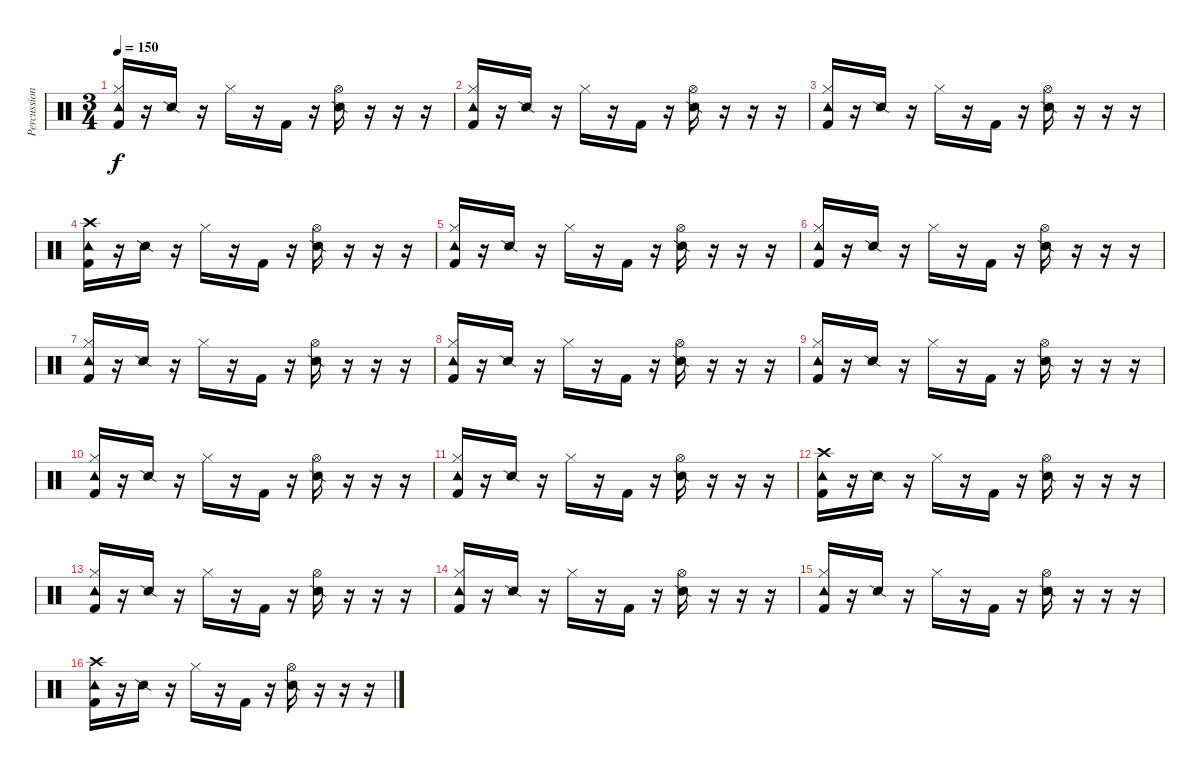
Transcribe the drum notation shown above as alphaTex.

\track ("Percussion" "Percussion") {instrument percussion}
\staff {score}
\articulation defaults
\ts (3 4)
\tempo 150
\clef neutral
\ks c
("Tambourine (hit)" "Hi-Hat (closed)" "Kick (hit) 2").16{dy f} r.16 "Snare (side stick) 2".16 r.16 "Hi-Hat (closed)".16 r.16 "Kick (hit) 2".16 r.16 ("Hi-Hat (open)" "Snare (side stick) 2").16 r.16 r.16 r.16 |
("Tambourine (hit)" "Hi-Hat (closed)" "Kick (hit) 2").16 r.16 "Snare (side stick) 2".16 r.16 "Hi-Hat (closed)".16 r.16 "Kick (hit) 2".16 r.16 ("Hi-Hat (open)" "Snare (side stick) 2").16 r.16 r.16 r.16 |
("Tambourine (hit)" "Hi-Hat (closed)" "Kick (hit) 2").16 r.16 "Snare (side stick) 2".16 r.16 "Hi-Hat (closed)".16 r.16 "Kick (hit) 2".16 r.16 ("Hi-Hat (open)" "Snare (side stick) 2").16 r.16 r.16 r.16 |
("Tambourine (hit)" "Crash high (hit)" "Kick (hit) 2").16 r.16 "Snare (side stick) 2".16 r.16 "Hi-Hat (closed)".16 r.16 "Kick (hit) 2".16 r.16 ("Hi-Hat (open)" "Snare (side stick) 2").16 r.16 r.16 r.16 |
("Tambourine (hit)" "Hi-Hat (closed)" "Kick (hit) 2").16 r.16 "Snare (side stick) 2".16 r.16 "Hi-Hat (closed)".16 r.16 "Kick (hit) 2".16 r.16 ("Hi-Hat (open)" "Snare (side stick) 2").16 r.16 r.16 r.16 |
("Tambourine (hit)" "Hi-Hat (closed)" "Kick (hit) 2").16 r.16 "Snare (side stick) 2".16 r.16 "Hi-Hat (closed)".16 r.16 "Kick (hit) 2".16 r.16 ("Hi-Hat (open)" "Snare (side stick) 2").16 r.16 r.16 r.16 |
("Tambourine (hit)" "Hi-Hat (closed)" "Kick (hit) 2").16 r.16 "Snare (side stick) 2".16 r.16 "Hi-Hat (closed)".16 r.16 "Kick (hit) 2".16 r.16 ("Hi-Hat (open)" "Snare (side stick) 2").16 r.16 r.16 r.16 |
("Tambourine (hit)" "Hi-Hat (closed)" "Kick (hit) 2").16 r.16 "Snare (side stick) 2".16 r.16 "Hi-Hat (closed)".16 r.16 "Kick (hit) 2".16 r.16 ("Hi-Hat (open)" "Snare (side stick) 2").16 r.16 r.16 r.16 |
("Tambourine (hit)" "Hi-Hat (closed)" "Kick (hit) 2").16 r.16 "Snare (side stick) 2".16 r.16 "Hi-Hat (closed)".16 r.16 "Kick (hit) 2".16 r.16 ("Hi-Hat (open)" "Snare (side stick) 2").16 r.16 r.16 r.16 |
("Tambourine (hit)" "Hi-Hat (closed)" "Kick (hit) 2").16 r.16 "Snare (side stick) 2".16 r.16 "Hi-Hat (closed)".16 r.16 "Kick (hit) 2".16 r.16 ("Hi-Hat (open)" "Snare (side stick) 2").16 r.16 r.16 r.16 |
("Tambourine (hit)" "Hi-Hat (closed)" "Kick (hit) 2").16 r.16 "Snare (side stick) 2".16 r.16 "Hi-Hat (closed)".16 r.16 "Kick (hit) 2".16 r.16 ("Hi-Hat (open)" "Snare (side stick) 2").16 r.16 r.16 r.16 |
("Tambourine (hit)" "Crash high (hit)" "Kick (hit) 2").16 r.16 "Snare (side stick) 2".16 r.16 "Hi-Hat (closed)".16 r.16 "Kick (hit) 2".16 r.16 ("Hi-Hat (open)" "Snare (side stick) 2").16 r.16 r.16 r.16 |
("Tambourine (hit)" "Hi-Hat (closed)" "Kick (hit) 2").16 r.16 "Snare (side stick) 2".16 r.16 "Hi-Hat (closed)".16 r.16 "Kick (hit) 2".16 r.16 ("Hi-Hat (open)" "Snare (side stick) 2").16 r.16 r.16 r.16 |
("Tambourine (hit)" "Hi-Hat (closed)" "Kick (hit) 2").16 r.16 "Snare (side stick) 2".16 r.16 "Hi-Hat (closed)".16 r.16 "Kick (hit) 2".16 r.16 ("Hi-Hat (open)" "Snare (side stick) 2").16 r.16 r.16 r.16 |
("Tambourine (hit)" "Hi-Hat (closed)" "Kick (hit) 2").16 r.16 "Snare (side stick) 2".16 r.16 "Hi-Hat (closed)".16 r.16 "Kick (hit) 2".16 r.16 ("Hi-Hat (open)" "Snare (side stick) 2").16 r.16 r.16 r.16 |
("Tambourine (hit)" "Crash high (hit)" "Kick (hit) 2").16 r.16 "Snare (side stick) 2".16 r.16 "Hi-Hat (closed)".16 r.16 "Kick (hit) 2".16 r.16 ("Hi-Hat (open)" "Snare (side stick) 2").16 r.16 r.16 r.16
